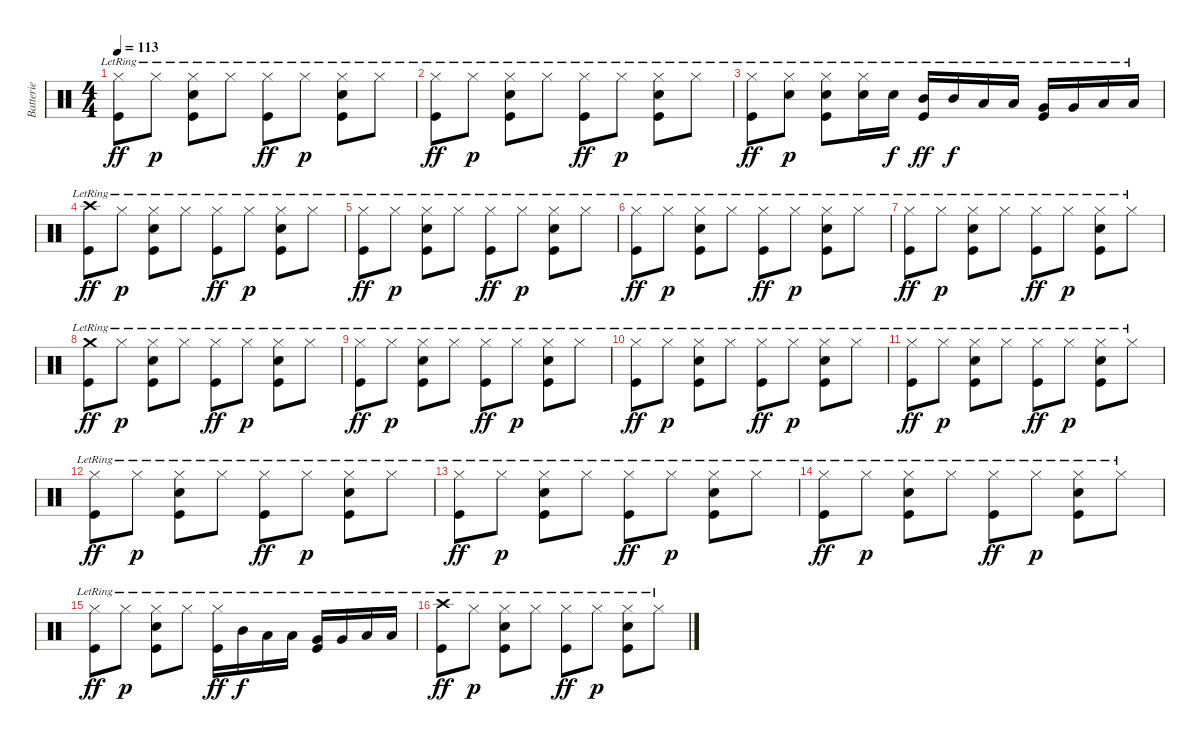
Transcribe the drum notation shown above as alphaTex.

\track ("Batterie" "Batterie") {instrument percussion}
\staff {score}
\articulation defaults
\ts (4 4)
\tempo 113
\clef neutral
\ks c
("Hi-Hat (closed)"{lr} "Kick (hit)"{lr}).8{dy ff} "Hi-Hat (closed)"{lr}.8{dy p} ("Hi-Hat (closed)"{lr} "Snare (hit) 2"{lr} "Kick (hit)"{lr}).8 "Hi-Hat (closed)"{lr}.8 ("Hi-Hat (closed)"{lr} "Kick (hit)"{lr}).8{dy ff} "Hi-Hat (closed)"{lr}.8{dy p} ("Hi-Hat (closed)"{lr} "Snare (hit) 2"{lr} "Kick (hit)"{lr}).8 "Hi-Hat (closed)"{lr}.8 |
("Hi-Hat (closed)"{lr} "Kick (hit)"{lr}).8{dy ff} "Hi-Hat (closed)"{lr}.8{dy p} ("Hi-Hat (closed)"{lr} "Snare (hit) 2"{lr} "Kick (hit)"{lr}).8 "Hi-Hat (closed)"{lr}.8 ("Hi-Hat (closed)"{lr} "Kick (hit)"{lr}).8{dy ff} "Hi-Hat (closed)"{lr}.8{dy p} ("Hi-Hat (closed)"{lr} "Snare (hit) 2"{lr} "Kick (hit)"{lr}).8 "Hi-Hat (closed)"{lr}.8 |
("Hi-Hat (closed)"{lr} "Kick (hit)"{lr}).8{dy ff} ("Hi-Hat (closed)"{lr} "Snare (hit) 2"{lr}).8{dy p} ("Hi-Hat (closed)"{lr} "Snare (hit) 2"{lr} "Kick (hit)"{lr}).8 ("Hi-Hat (closed)"{lr} "Snare (hit) 2"{lr}).16 "Snare (hit) 2"{lr}.16{dy f} ("Mid Tom (hit)"{lr} "Kick (hit)"{lr}).16{dy ff} "Mid Tom (hit)"{lr}.16{dy f} "Low Tom (hit)"{lr}.16 "Low Tom (hit)"{lr}.16 ("Very Low Tom (hit)"{lr} "Kick (hit)"{lr}).16 "Very Low Tom (hit)"{lr}.16 "Low Floor Tom (hit)"{lr}.16 "Low Floor Tom (hit)"{lr}.16 |
("Crash high (hit)"{lr} "Kick (hit)"{lr}).8{dy ff} "Hi-Hat (closed)"{lr}.8{dy p} ("Hi-Hat (closed)"{lr} "Snare (hit) 2"{lr} "Kick (hit)"{lr}).8 "Hi-Hat (closed)"{lr}.8 ("Hi-Hat (closed)"{lr} "Kick (hit)"{lr}).8{dy ff} "Hi-Hat (closed)"{lr}.8{dy p} ("Hi-Hat (closed)"{lr} "Snare (hit) 2"{lr} "Kick (hit)"{lr}).8 "Hi-Hat (closed)"{lr}.8 |
("Hi-Hat (closed)"{lr} "Kick (hit)"{lr}).8{dy ff} "Hi-Hat (closed)"{lr}.8{dy p} ("Hi-Hat (closed)"{lr} "Snare (hit) 2"{lr} "Kick (hit)"{lr}).8 "Hi-Hat (closed)"{lr}.8 ("Hi-Hat (closed)"{lr} "Kick (hit)"{lr}).8{dy ff} "Hi-Hat (closed)"{lr}.8{dy p} ("Hi-Hat (closed)"{lr} "Snare (hit) 2"{lr} "Kick (hit)"{lr}).8 "Hi-Hat (closed)"{lr}.8 |
("Hi-Hat (closed)"{lr} "Kick (hit)"{lr}).8{dy ff} "Hi-Hat (closed)"{lr}.8{dy p} ("Hi-Hat (closed)"{lr} "Snare (hit) 2"{lr} "Kick (hit)"{lr}).8 "Hi-Hat (closed)"{lr}.8 ("Hi-Hat (closed)"{lr} "Kick (hit)"{lr}).8{dy ff} "Hi-Hat (closed)"{lr}.8{dy p} ("Hi-Hat (closed)"{lr} "Snare (hit) 2"{lr} "Kick (hit)"{lr}).8 "Hi-Hat (closed)"{lr}.8 |
("Hi-Hat (closed)"{lr} "Kick (hit)"{lr}).8{dy ff} "Hi-Hat (closed)"{lr}.8{dy p} ("Hi-Hat (closed)"{lr} "Snare (hit) 2"{lr} "Kick (hit)"{lr}).8 "Hi-Hat (closed)"{lr}.8 ("Hi-Hat (closed)"{lr} "Kick (hit)"{lr}).8{dy ff} "Hi-Hat (closed)"{lr}.8{dy p} ("Hi-Hat (closed)"{lr} "Snare (hit) 2"{lr} "Kick (hit)"{lr}).8 "Hi-Hat (closed)"{lr}.8 |
("Crash medium (hit)"{lr} "Kick (hit)"{lr}).8{dy ff} "Hi-Hat (closed)"{lr}.8{dy p} ("Hi-Hat (closed)"{lr} "Snare (hit) 2"{lr} "Kick (hit)"{lr}).8 "Hi-Hat (closed)"{lr}.8 ("Hi-Hat (closed)"{lr} "Kick (hit)"{lr}).8{dy ff} "Hi-Hat (closed)"{lr}.8{dy p} ("Hi-Hat (closed)"{lr} "Snare (hit) 2"{lr} "Kick (hit)"{lr}).8 "Hi-Hat (closed)"{lr}.8 |
("Hi-Hat (closed)"{lr} "Kick (hit)"{lr}).8{dy ff} "Hi-Hat (closed)"{lr}.8{dy p} ("Hi-Hat (closed)"{lr} "Snare (hit) 2"{lr} "Kick (hit)"{lr}).8 "Hi-Hat (closed)"{lr}.8 ("Hi-Hat (closed)"{lr} "Kick (hit)"{lr}).8{dy ff} "Hi-Hat (closed)"{lr}.8{dy p} ("Hi-Hat (closed)"{lr} "Snare (hit) 2"{lr} "Kick (hit)"{lr}).8 "Hi-Hat (closed)"{lr}.8 |
("Hi-Hat (closed)"{lr} "Kick (hit)"{lr}).8{dy ff} "Hi-Hat (closed)"{lr}.8{dy p} ("Hi-Hat (closed)"{lr} "Snare (hit) 2"{lr} "Kick (hit)"{lr}).8 "Hi-Hat (closed)"{lr}.8 ("Hi-Hat (closed)"{lr} "Kick (hit)"{lr}).8{dy ff} "Hi-Hat (closed)"{lr}.8{dy p} ("Hi-Hat (closed)"{lr} "Snare (hit) 2"{lr} "Kick (hit)"{lr}).8 "Hi-Hat (closed)"{lr}.8 |
("Hi-Hat (closed)"{lr} "Kick (hit)"{lr}).8{dy ff} "Hi-Hat (closed)"{lr}.8{dy p} ("Hi-Hat (closed)"{lr} "Snare (hit) 2"{lr} "Kick (hit)"{lr}).8 "Hi-Hat (closed)"{lr}.8 ("Hi-Hat (closed)"{lr} "Kick (hit)"{lr}).8{dy ff} "Hi-Hat (closed)"{lr}.8{dy p} ("Hi-Hat (closed)"{lr} "Snare (hit) 2"{lr} "Kick (hit)"{lr}).8 "Hi-Hat (closed)"{lr}.8 |
("Hi-Hat (closed)"{lr} "Kick (hit)"{lr}).8{dy ff} "Hi-Hat (closed)"{lr}.8{dy p} ("Hi-Hat (closed)"{lr} "Snare (hit) 2"{lr} "Kick (hit)"{lr}).8 "Hi-Hat (closed)"{lr}.8 ("Hi-Hat (closed)"{lr} "Kick (hit)"{lr}).8{dy ff} "Hi-Hat (closed)"{lr}.8{dy p} ("Hi-Hat (closed)"{lr} "Snare (hit) 2"{lr} "Kick (hit)"{lr}).8 "Hi-Hat (closed)"{lr}.8 |
("Hi-Hat (closed)"{lr} "Kick (hit)"{lr}).8{dy ff} "Hi-Hat (closed)"{lr}.8{dy p} ("Hi-Hat (closed)"{lr} "Snare (hit) 2"{lr} "Kick (hit)"{lr}).8 "Hi-Hat (closed)"{lr}.8 ("Hi-Hat (closed)"{lr} "Kick (hit)"{lr}).8{dy ff} "Hi-Hat (closed)"{lr}.8{dy p} ("Hi-Hat (closed)"{lr} "Snare (hit) 2"{lr} "Kick (hit)"{lr}).8 "Hi-Hat (closed)"{lr}.8 |
("Hi-Hat (closed)"{lr} "Kick (hit)"{lr}).8{dy ff} "Hi-Hat (closed)"{lr}.8{dy p} ("Hi-Hat (closed)"{lr} "Snare (hit) 2"{lr} "Kick (hit)"{lr}).8 "Hi-Hat (closed)"{lr}.8 ("Hi-Hat (closed)"{lr} "Kick (hit)"{lr}).8{dy ff} "Hi-Hat (closed)"{lr}.8{dy p} ("Hi-Hat (closed)"{lr} "Snare (hit) 2"{lr} "Kick (hit)"{lr}).8 "Hi-Hat (closed)"{lr}.8 |
("Hi-Hat (closed)"{lr} "Kick (hit)"{lr}).8{dy ff} "Hi-Hat (closed)"{lr}.8{dy p} ("Hi-Hat (closed)"{lr} "Snare (hit) 2"{lr} "Kick (hit)"{lr}).8 "Hi-Hat (closed)"{lr}.8 ("Hi-Hat (closed)"{lr} "Kick (hit)"{lr}).16{dy ff} "Mid Tom (hit)"{lr}.16{dy f} "Low Tom (hit)"{lr}.16 "Low Tom (hit)"{lr}.16 ("Very Low Tom (hit)"{lr} "Kick (hit)"{lr}).16 "Very Low Tom (hit)"{lr}.16 "Low Floor Tom (hit)"{lr}.16 "Low Floor Tom (hit)"{lr}.16 |
("Crash high (hit)"{lr} "Kick (hit)"{lr}).8{dy ff} "Hi-Hat (closed)"{lr}.8{dy p} ("Hi-Hat (closed)"{lr} "Snare (hit) 2"{lr} "Kick (hit)"{lr}).8 "Hi-Hat (closed)"{lr}.8 ("Hi-Hat (closed)"{lr} "Kick (hit)"{lr}).8{dy ff} "Hi-Hat (closed)"{lr}.8{dy p} ("Hi-Hat (closed)"{lr} "Snare (hit) 2"{lr} "Kick (hit)"{lr}).8 "Hi-Hat (closed)"{lr}.8
